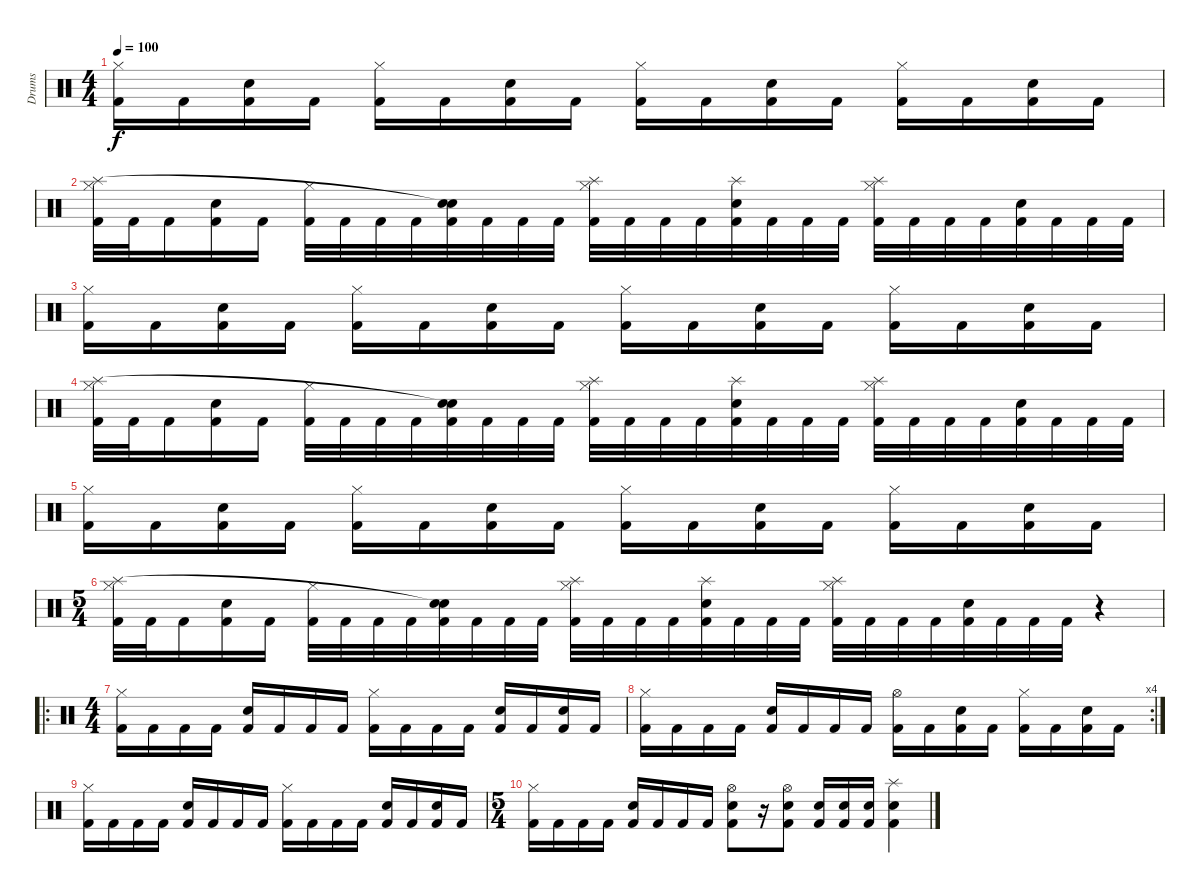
\track ("Drums" "Drums") {instrument percussion}
\staff {score}
\articulation defaults
\ts (4 4)
\tempo 100
\clef neutral
\ks c
("Kick (hit) 2" "Hi-Hat (closed)").16{dy f} "Kick (hit) 2".16 ("Kick (hit) 2" "Snare (hit) 2").16 "Kick (hit) 2".16 ("Kick (hit) 2" "Hi-Hat (closed)").16 "Kick (hit) 2".16 ("Kick (hit) 2" "Snare (hit) 2").16 "Kick (hit) 2".16 ("Kick (hit) 2" "Hi-Hat (closed)").16 "Kick (hit) 2".16 ("Kick (hit) 2" "Snare (hit) 2").16 "Kick (hit) 2".16 ("Kick (hit) 2" "Hi-Hat (closed)").16 "Kick (hit) 2".16 ("Kick (hit) 2" "Snare (hit) 2").16 "Kick (hit) 2".16 |
("Kick (hit) 2" "Hi-Hat (closed)" "Splash (hit)").32 "Kick (hit) 2".32 "Kick (hit) 2".16 ("Kick (hit) 2" "Snare (hit) 2").16 "Kick (hit) 2".16 ("Kick (hit) 2" "Hi-Hat (closed)").32 "Kick (hit) 2".32 "Kick (hit) 2".32 "Kick (hit) 2".32 ("Kick (hit) 2" "Snare (hit) 2" "Snare (hit)"{t}).32 "Kick (hit) 2".32 "Kick (hit) 2".32 "Kick (hit) 2".32 ("Kick (hit) 2" "Hi-Hat (closed)" "Splash (hit)").32 "Kick (hit) 2".32 "Kick (hit) 2".32 "Kick (hit) 2".32 ("Kick (hit) 2" "Snare (hit) 2" "Splash (hit)").32 "Kick (hit) 2".32 "Kick (hit) 2".32 "Kick (hit) 2".32 ("Kick (hit) 2" "Hi-Hat (closed)" "Splash (hit)").32 "Kick (hit) 2".32 "Kick (hit) 2".32 "Kick (hit) 2".32 ("Kick (hit) 2" "Snare (hit) 2").32 "Kick (hit) 2".32 "Kick (hit) 2".32 "Kick (hit) 2".32 |
("Kick (hit) 2" "Hi-Hat (closed)").16 "Kick (hit) 2".16 ("Kick (hit) 2" "Snare (hit) 2").16 "Kick (hit) 2".16 ("Kick (hit) 2" "Hi-Hat (closed)").16 "Kick (hit) 2".16 ("Kick (hit) 2" "Snare (hit) 2").16 "Kick (hit) 2".16 ("Kick (hit) 2" "Hi-Hat (closed)").16 "Kick (hit) 2".16 ("Kick (hit) 2" "Snare (hit) 2").16 "Kick (hit) 2".16 ("Kick (hit) 2" "Hi-Hat (closed)").16 "Kick (hit) 2".16 ("Kick (hit) 2" "Snare (hit) 2").16 "Kick (hit) 2".16 |
("Kick (hit) 2" "Hi-Hat (closed)" "Splash (hit)").32 "Kick (hit) 2".32 "Kick (hit) 2".16 ("Kick (hit) 2" "Snare (hit) 2").16 "Kick (hit) 2".16 ("Kick (hit) 2" "Hi-Hat (closed)").32 "Kick (hit) 2".32 "Kick (hit) 2".32 "Kick (hit) 2".32 ("Kick (hit) 2" "Snare (hit) 2" "Snare (hit)"{t}).32 "Kick (hit) 2".32 "Kick (hit) 2".32 "Kick (hit) 2".32 ("Kick (hit) 2" "Hi-Hat (closed)" "Splash (hit)").32 "Kick (hit) 2".32 "Kick (hit) 2".32 "Kick (hit) 2".32 ("Kick (hit) 2" "Snare (hit) 2" "Splash (hit)").32 "Kick (hit) 2".32 "Kick (hit) 2".32 "Kick (hit) 2".32 ("Kick (hit) 2" "Hi-Hat (closed)" "Splash (hit)").32 "Kick (hit) 2".32 "Kick (hit) 2".32 "Kick (hit) 2".32 ("Kick (hit) 2" "Snare (hit) 2").32 "Kick (hit) 2".32 "Kick (hit) 2".32 "Kick (hit) 2".32 |
("Kick (hit) 2" "Hi-Hat (closed)").16 "Kick (hit) 2".16 ("Kick (hit) 2" "Snare (hit) 2").16 "Kick (hit) 2".16 ("Kick (hit) 2" "Hi-Hat (closed)").16 "Kick (hit) 2".16 ("Kick (hit) 2" "Snare (hit) 2").16 "Kick (hit) 2".16 ("Kick (hit) 2" "Hi-Hat (closed)").16 "Kick (hit) 2".16 ("Kick (hit) 2" "Snare (hit) 2").16 "Kick (hit) 2".16 ("Kick (hit) 2" "Hi-Hat (closed)").16 "Kick (hit) 2".16 ("Kick (hit) 2" "Snare (hit) 2").16 "Kick (hit) 2".16 |
\ts (5 4)
("Kick (hit) 2" "Hi-Hat (closed)" "Splash (hit)").32 "Kick (hit) 2".32 "Kick (hit) 2".16 ("Kick (hit) 2" "Snare (hit) 2").16 "Kick (hit) 2".16 ("Kick (hit) 2" "Hi-Hat (closed)").32 "Kick (hit) 2".32 "Kick (hit) 2".32 "Kick (hit) 2".32 ("Kick (hit) 2" "Snare (hit) 2" "Snare (hit)"{t}).32 "Kick (hit) 2".32 "Kick (hit) 2".32 "Kick (hit) 2".32 ("Kick (hit) 2" "Hi-Hat (closed)" "Splash (hit)").32 "Kick (hit) 2".32 "Kick (hit) 2".32 "Kick (hit) 2".32 ("Kick (hit) 2" "Snare (hit) 2" "Splash (hit)").32 "Kick (hit) 2".32 "Kick (hit) 2".32 "Kick (hit) 2".32 ("Kick (hit) 2" "Hi-Hat (closed)" "Splash (hit)").32 "Kick (hit) 2".32 "Kick (hit) 2".32 "Kick (hit) 2".32 ("Kick (hit) 2" "Snare (hit) 2").32 "Kick (hit) 2".32 "Kick (hit) 2".32 "Kick (hit) 2".32 r.4 |
\ro
\ts (4 4)
("Kick (hit) 2" "Hi-Hat (closed)").16 "Kick (hit) 2".16 "Kick (hit) 2".16 "Kick (hit) 2".16 ("Kick (hit) 2" "Snare (hit) 2").16 "Kick (hit) 2".16 "Kick (hit) 2".16 "Kick (hit) 2".16 ("Kick (hit) 2" "Hi-Hat (closed)").16 "Kick (hit) 2".16 "Kick (hit) 2".16 "Kick (hit) 2".16 ("Kick (hit) 2" "Snare (hit) 2").16 "Kick (hit) 2".16 ("Kick (hit) 2" "Snare (hit) 2").16 "Kick (hit) 2".16 |
\rc 4
("Kick (hit) 2" "Hi-Hat (closed)").16 "Kick (hit) 2".16 "Kick (hit) 2".16 "Kick (hit) 2".16 ("Kick (hit) 2" "Snare (hit) 2").16 "Kick (hit) 2".16 "Kick (hit) 2".16 "Kick (hit) 2".16 ("Kick (hit) 2" "Hi-Hat (open)").16 "Kick (hit) 2".16 ("Kick (hit) 2" "Snare (hit) 2").16 "Kick (hit) 2".16 ("Kick (hit) 2" "Hi-Hat (closed)").16 "Kick (hit) 2".16 ("Kick (hit) 2" "Snare (hit) 2").16 "Kick (hit) 2".16 |
("Kick (hit) 2" "Hi-Hat (closed)").16 "Kick (hit) 2".16 "Kick (hit) 2".16 "Kick (hit) 2".16 ("Kick (hit) 2" "Snare (hit) 2").16 "Kick (hit) 2".16 "Kick (hit) 2".16 "Kick (hit) 2".16 ("Kick (hit) 2" "Hi-Hat (closed)").16 "Kick (hit) 2".16 "Kick (hit) 2".16 "Kick (hit) 2".16 ("Kick (hit) 2" "Snare (hit) 2").16 "Kick (hit) 2".16 ("Kick (hit) 2" "Snare (hit) 2").16 "Kick (hit) 2".16 |
\ts (5 4)
("Kick (hit) 2" "Hi-Hat (closed)").16 "Kick (hit) 2".16 "Kick (hit) 2".16 "Kick (hit) 2".16 ("Kick (hit) 2" "Snare (hit) 2").16 "Kick (hit) 2".16 "Kick (hit) 2".16 "Kick (hit) 2".16 ("Kick (hit) 2" "Snare (hit) 2" "Hi-Hat (open)").8 r.16 ("Kick (hit) 2" "Snare (hit) 2" "Hi-Hat (open)").8 ("Kick (hit) 2" "Snare (hit) 2").16 ("Kick (hit) 2" "Snare (hit) 2").16 ("Kick (hit) 2" "Snare (hit) 2").16 ("Kick (hit) 2" "Snare (hit) 2" "Splash (hit)").4
